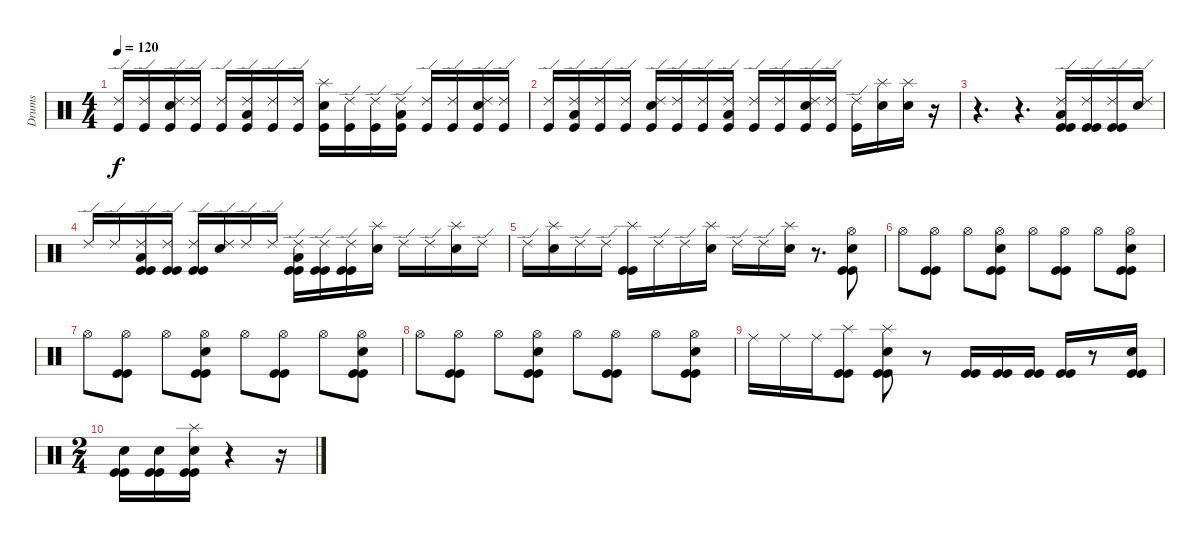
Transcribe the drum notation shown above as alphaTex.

\track ("Drums" "Drums") {instrument percussion}
\staff {score}
\articulation defaults
\ts (4 4)
\tempo 120
\clef neutral
\ks c
("Ride (edge) 2" "Kick (hit)").16{dy f} ("Ride (edge) 2" "Kick (hit)").16 ("Ride (edge) 2" "Electric Snare (hit)" "Kick (hit)").16 ("Ride (edge) 2" "Kick (hit)").16 ("Ride (edge) 2" "Kick (hit)").16 ("Ride (edge) 2" "Low Floor Tom (hit)" "Kick (hit)").16 ("Ride (edge) 2" "Kick (hit)").16 ("Ride (edge) 2" "Kick (hit)").16 ("Splash (hit)" "Electric Snare (hit)" "Kick (hit)").16 ("Ride (edge) 2" "Kick (hit)").16 ("Ride (edge) 2" "Kick (hit)").16 ("Ride (edge) 2" "Low Floor Tom (hit)" "Kick (hit)").16 ("Ride (edge) 2" "Kick (hit)").16 ("Ride (edge) 2" "Kick (hit)").16 ("Ride (edge) 2" "Electric Snare (hit)" "Kick (hit)").16 ("Ride (edge) 2" "Kick (hit)").16 |
("Ride (edge) 2" "Kick (hit)").16 ("Ride (edge) 2" "Low Floor Tom (hit)" "Kick (hit)").16 ("Ride (edge) 2" "Kick (hit)").16 ("Ride (edge) 2" "Kick (hit)").16 ("Ride (edge) 2" "Electric Snare (hit)" "Kick (hit)").16 ("Ride (edge) 2" "Kick (hit)").16 ("Ride (edge) 2" "Kick (hit)").16 ("Ride (edge) 2" "Low Floor Tom (hit)" "Kick (hit)").16 ("Ride (edge) 2" "Kick (hit)").16 ("Ride (edge) 2" "Kick (hit)").16 ("Ride (edge) 2" "Electric Snare (hit)" "Kick (hit)").16 ("Ride (edge) 2" "Kick (hit)").16 ("Ride (edge) 2" "Kick (hit)").16 ("Splash (hit)" "Electric Snare (hit)").16 ("Splash (hit)" "Electric Snare (hit)").16 r.16 |
r.4{d} r.4{d} ("Ride (edge) 2" "Low Floor Tom (hit)" "Kick (hit)" "Kick (hit)").16 ("Ride (edge) 2" "Kick (hit)" "Kick (hit)").16 ("Ride (edge) 2" "Kick (hit)" "Kick (hit)").16 ("Ride (edge) 2" "Electric Snare (hit)").16 |
"Ride (edge) 2".16 "Ride (edge) 2".16 ("Ride (edge) 2" "Low Floor Tom (hit)" "Kick (hit)" "Kick (hit)").16 ("Ride (edge) 2" "Kick (hit)" "Kick (hit)").16 ("Ride (edge) 2" "Kick (hit)" "Kick (hit)").16 ("Ride (edge) 2" "Electric Snare (hit)").16 "Ride (edge) 2".16 "Ride (edge) 2".16 ("Ride (edge) 2" "Low Floor Tom (hit)" "Kick (hit)" "Kick (hit)").16 ("Ride (edge) 2" "Kick (hit)" "Kick (hit)").16 ("Ride (edge) 2" "Kick (hit)" "Kick (hit)").16 ("Splash (hit)" "Electric Snare (hit)").16 "Ride (edge) 2".16 "Ride (edge) 2".16 ("Splash (hit)" "Electric Snare (hit)").16 "Ride (edge) 2".16 |
"Ride (edge) 2".16 ("Splash (hit)" "Electric Snare (hit)").16 "Ride (edge) 2".16 "Ride (edge) 2".16 ("Splash (hit)" "Kick (hit)" "Kick (hit)").16 "Ride (edge) 2".16 "Ride (edge) 2".16 ("Splash (hit)" "Electric Snare (hit)").16 "Ride (edge) 2".16 "Ride (edge) 2".16 ("Splash (hit)" "Electric Snare (hit)").16 r.8{d} ("Hi-Hat (open)" "Electric Snare (hit)" "Kick (hit)" "Kick (hit)").8 |
"Hi-Hat (open)".8 ("Hi-Hat (open)" "Kick (hit)" "Kick (hit)").8 "Hi-Hat (open)".8 ("Hi-Hat (open)" "Electric Snare (hit)" "Kick (hit)" "Kick (hit)").8 "Hi-Hat (open)".8 ("Hi-Hat (open)" "Kick (hit)" "Kick (hit)").8 "Hi-Hat (open)".8 ("Hi-Hat (open)" "Electric Snare (hit)" "Kick (hit)" "Kick (hit)").8 |
"Hi-Hat (open)".8 ("Hi-Hat (open)" "Kick (hit)" "Kick (hit)").8 "Hi-Hat (open)".8 ("Hi-Hat (open)" "Electric Snare (hit)" "Kick (hit)" "Kick (hit)").8 "Hi-Hat (open)".8 ("Hi-Hat (open)" "Kick (hit)" "Kick (hit)").8 "Hi-Hat (open)".8 ("Hi-Hat (open)" "Electric Snare (hit)" "Kick (hit)" "Kick (hit)").8 |
"Hi-Hat (open)".8 ("Hi-Hat (open)" "Kick (hit)" "Kick (hit)").8 "Hi-Hat (open)".8 ("Hi-Hat (open)" "Electric Snare (hit)" "Kick (hit)" "Kick (hit)").8 "Hi-Hat (open)".8 ("Hi-Hat (open)" "Kick (hit)" "Kick (hit)").8 "Hi-Hat (open)".8 ("Hi-Hat (open)" "Electric Snare (hit)" "Kick (hit)" "Kick (hit)").8 |
"Ride (middle)".16 "Ride (middle)".16 "Ride (middle)".16 ("Splash (hit)" "Kick (hit)" "Kick (hit)").8 ("Splash (hit)" "Electric Snare (hit)" "Kick (hit)" "Kick (hit)").8 r.8 ("Kick (hit)" "Kick (hit)").16 ("Kick (hit)" "Kick (hit)").16 ("Kick (hit)" "Kick (hit)").16 ("Kick (hit)" "Kick (hit)").16 r.8 ("Electric Snare (hit)" "Kick (hit)" "Kick (hit)").16 |
\ts (2 4)
("Electric Snare (hit)" "Kick (hit)" "Kick (hit)").16 ("Electric Snare (hit)" "Kick (hit)" "Kick (hit)").16 ("Splash (hit)" "Electric Snare (hit)" "Kick (hit)" "Kick (hit)").16 r.4 r.16
